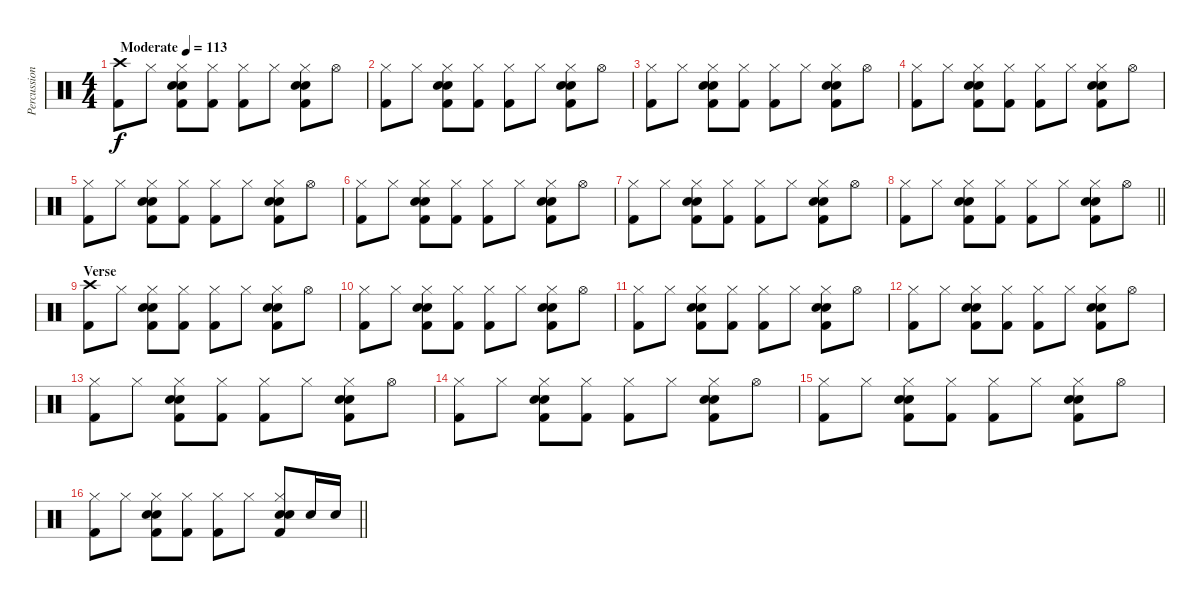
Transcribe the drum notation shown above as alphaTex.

\track ("Percussion" "Percussion") {instrument percussion}
\staff {score}
\articulation defaults
\ts (4 4)
\tempo (113 "Moderate")
\clef neutral
\ks c
("Crash high (hit)" "Kick (hit) 2").8{dy f} "Hi-Hat (closed)".8 ("Hand Clap (hit)" "Hi-Hat (closed)" "Electric Snare (hit)" "Kick (hit) 2").8 ("Hi-Hat (closed)" "Kick (hit) 2").8 ("Hi-Hat (closed)" "Kick (hit) 2").8 "Hi-Hat (closed)".8 ("Hand Clap (hit)" "Hi-Hat (closed)" "Electric Snare (hit)" "Kick (hit) 2").8 "Hi-Hat (open)".8 |
("Hi-Hat (closed)" "Kick (hit) 2").8 "Hi-Hat (closed)".8 ("Hand Clap (hit)" "Hi-Hat (closed)" "Electric Snare (hit)" "Kick (hit) 2").8 ("Hi-Hat (closed)" "Kick (hit) 2").8 ("Hi-Hat (closed)" "Kick (hit) 2").8 "Hi-Hat (closed)".8 ("Hand Clap (hit)" "Hi-Hat (closed)" "Electric Snare (hit)" "Kick (hit) 2").8 "Hi-Hat (open)".8 |
("Hi-Hat (closed)" "Kick (hit) 2").8 "Hi-Hat (closed)".8 ("Hand Clap (hit)" "Hi-Hat (closed)" "Electric Snare (hit)" "Kick (hit) 2").8 ("Hi-Hat (closed)" "Kick (hit) 2").8 ("Hi-Hat (closed)" "Kick (hit) 2").8 "Hi-Hat (closed)".8 ("Hand Clap (hit)" "Hi-Hat (closed)" "Electric Snare (hit)" "Kick (hit) 2").8 "Hi-Hat (open)".8 |
("Hi-Hat (closed)" "Kick (hit) 2").8 "Hi-Hat (closed)".8 ("Hand Clap (hit)" "Hi-Hat (closed)" "Electric Snare (hit)" "Kick (hit) 2").8 ("Hi-Hat (closed)" "Kick (hit) 2").8 ("Hi-Hat (closed)" "Kick (hit) 2").8 "Hi-Hat (closed)".8 ("Hand Clap (hit)" "Hi-Hat (closed)" "Electric Snare (hit)" "Kick (hit) 2").8 "Hi-Hat (open)".8 |
("Hi-Hat (closed)" "Kick (hit) 2").8 "Hi-Hat (closed)".8 ("Hand Clap (hit)" "Hi-Hat (closed)" "Electric Snare (hit)" "Kick (hit) 2").8 ("Hi-Hat (closed)" "Kick (hit) 2").8 ("Hi-Hat (closed)" "Kick (hit) 2").8 "Hi-Hat (closed)".8 ("Hand Clap (hit)" "Hi-Hat (closed)" "Electric Snare (hit)" "Kick (hit) 2").8 "Hi-Hat (open)".8 |
("Hi-Hat (closed)" "Kick (hit) 2").8 "Hi-Hat (closed)".8 ("Hand Clap (hit)" "Hi-Hat (closed)" "Electric Snare (hit)" "Kick (hit) 2").8 ("Hi-Hat (closed)" "Kick (hit) 2").8 ("Hi-Hat (closed)" "Kick (hit) 2").8 "Hi-Hat (closed)".8 ("Hand Clap (hit)" "Hi-Hat (closed)" "Electric Snare (hit)" "Kick (hit) 2").8 "Hi-Hat (open)".8 |
("Hi-Hat (closed)" "Kick (hit) 2").8 "Hi-Hat (closed)".8 ("Hand Clap (hit)" "Hi-Hat (closed)" "Electric Snare (hit)" "Kick (hit) 2").8 ("Hi-Hat (closed)" "Kick (hit) 2").8 ("Hi-Hat (closed)" "Kick (hit) 2").8 "Hi-Hat (closed)".8 ("Hand Clap (hit)" "Hi-Hat (closed)" "Electric Snare (hit)" "Kick (hit) 2").8 "Hi-Hat (open)".8 |
\barLineRight lightlight
("Hi-Hat (closed)" "Kick (hit) 2").8 "Hi-Hat (closed)".8 ("Hand Clap (hit)" "Hi-Hat (closed)" "Electric Snare (hit)" "Kick (hit) 2").8 ("Hi-Hat (closed)" "Kick (hit) 2").8 ("Hi-Hat (closed)" "Kick (hit) 2").8 "Hi-Hat (closed)".8 ("Hand Clap (hit)" "Hi-Hat (closed)" "Electric Snare (hit)" "Kick (hit) 2").8 "Hi-Hat (open)".8 |
\section ("" "Verse")
("Crash high (hit)" "Kick (hit) 2").8 "Hi-Hat (closed)".8 ("Hand Clap (hit)" "Hi-Hat (closed)" "Electric Snare (hit)" "Kick (hit) 2").8 ("Hi-Hat (closed)" "Kick (hit) 2").8 ("Hi-Hat (closed)" "Kick (hit) 2").8 "Hi-Hat (closed)".8 ("Hand Clap (hit)" "Hi-Hat (closed)" "Electric Snare (hit)" "Kick (hit) 2").8 "Hi-Hat (open)".8 |
("Hi-Hat (closed)" "Kick (hit) 2").8 "Hi-Hat (closed)".8 ("Hand Clap (hit)" "Hi-Hat (closed)" "Electric Snare (hit)" "Kick (hit) 2").8 ("Hi-Hat (closed)" "Kick (hit) 2").8 ("Hi-Hat (closed)" "Kick (hit) 2").8 "Hi-Hat (closed)".8 ("Hand Clap (hit)" "Hi-Hat (closed)" "Electric Snare (hit)" "Kick (hit) 2").8 "Hi-Hat (open)".8 |
("Hi-Hat (closed)" "Kick (hit) 2").8 "Hi-Hat (closed)".8 ("Hand Clap (hit)" "Hi-Hat (closed)" "Electric Snare (hit)" "Kick (hit) 2").8 ("Hi-Hat (closed)" "Kick (hit) 2").8 ("Hi-Hat (closed)" "Kick (hit) 2").8 "Hi-Hat (closed)".8 ("Hand Clap (hit)" "Hi-Hat (closed)" "Electric Snare (hit)" "Kick (hit) 2").8 "Hi-Hat (open)".8 |
("Hi-Hat (closed)" "Kick (hit) 2").8 "Hi-Hat (closed)".8 ("Hand Clap (hit)" "Hi-Hat (closed)" "Electric Snare (hit)" "Kick (hit) 2").8 ("Hi-Hat (closed)" "Kick (hit) 2").8 ("Hi-Hat (closed)" "Kick (hit) 2").8 "Hi-Hat (closed)".8 ("Hand Clap (hit)" "Hi-Hat (closed)" "Electric Snare (hit)" "Kick (hit) 2").8 "Hi-Hat (open)".8 |
("Hi-Hat (closed)" "Kick (hit) 2").8 "Hi-Hat (closed)".8 ("Hand Clap (hit)" "Hi-Hat (closed)" "Electric Snare (hit)" "Kick (hit) 2").8 ("Hi-Hat (closed)" "Kick (hit) 2").8 ("Hi-Hat (closed)" "Kick (hit) 2").8 "Hi-Hat (closed)".8 ("Hand Clap (hit)" "Hi-Hat (closed)" "Electric Snare (hit)" "Kick (hit) 2").8 "Hi-Hat (open)".8 |
("Hi-Hat (closed)" "Kick (hit) 2").8 "Hi-Hat (closed)".8 ("Hand Clap (hit)" "Hi-Hat (closed)" "Electric Snare (hit)" "Kick (hit) 2").8 ("Hi-Hat (closed)" "Kick (hit) 2").8 ("Hi-Hat (closed)" "Kick (hit) 2").8 "Hi-Hat (closed)".8 ("Hand Clap (hit)" "Hi-Hat (closed)" "Electric Snare (hit)" "Kick (hit) 2").8 "Hi-Hat (open)".8 |
("Hi-Hat (closed)" "Kick (hit) 2").8 "Hi-Hat (closed)".8 ("Hand Clap (hit)" "Hi-Hat (closed)" "Electric Snare (hit)" "Kick (hit) 2").8 ("Hi-Hat (closed)" "Kick (hit) 2").8 ("Hi-Hat (closed)" "Kick (hit) 2").8 "Hi-Hat (closed)".8 ("Hand Clap (hit)" "Hi-Hat (closed)" "Electric Snare (hit)" "Kick (hit) 2").8 "Hi-Hat (open)".8 |
\barLineRight lightlight
("Hi-Hat (closed)" "Kick (hit) 2").8 "Hi-Hat (closed)".8 ("Hand Clap (hit)" "Hi-Hat (closed)" "Electric Snare (hit)" "Kick (hit) 2").8 ("Hi-Hat (closed)" "Kick (hit) 2").8 ("Hi-Hat (closed)" "Kick (hit) 2").8 "Hi-Hat (closed)".8 ("Hand Clap (hit)" "Hi-Hat (closed)" "Electric Snare (hit)" "Kick (hit) 2").8 "Electric Snare (hit)".16 "Electric Snare (hit)".16
